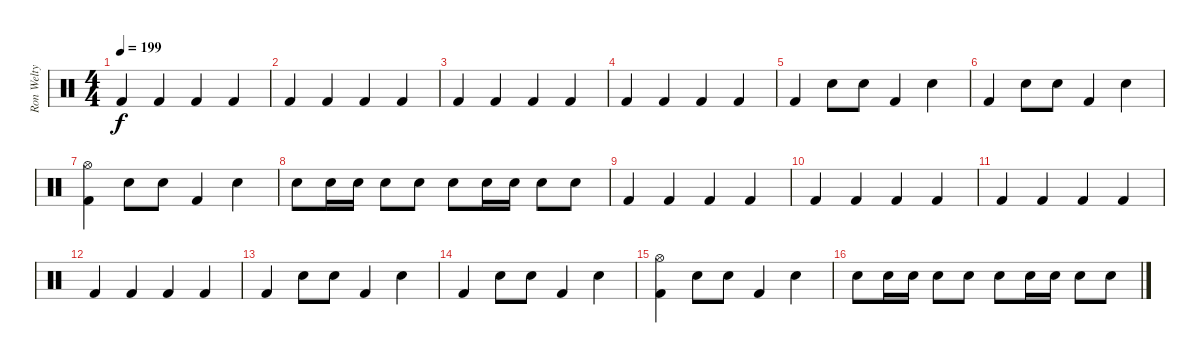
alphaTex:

\track ("Ron Welty" "Ron Welty") {instrument percussion}
\staff {score}
\articulation defaults
\ts (4 4)
\tempo 199
\clef neutral
\ks c "Kick (hit) 2".4{dy f} "Kick (hit) 2".4 "Kick (hit) 2".4 "Kick (hit) 2".4
|
"Kick (hit) 2".4 "Kick (hit) 2".4 "Kick (hit) 2".4 "Kick (hit) 2".4 |
"Kick (hit) 2".4 "Kick (hit) 2".4 "Kick (hit) 2".4 "Kick (hit) 2".4 |
"Kick (hit) 2".4 "Kick (hit) 2".4 "Kick (hit) 2".4 "Kick (hit) 2".4 |
"Kick (hit) 2".4 "Snare (hit) 2".8 "Snare (hit) 2".8 "Kick (hit) 2".4 "Snare (hit) 2".4 |
"Kick (hit) 2".4 "Snare (hit) 2".8 "Snare (hit) 2".8 "Kick (hit) 2".4 "Snare (hit) 2".4 |
("Hi-Hat (open)" "Kick (hit) 2").4 "Snare (hit) 2".8 "Snare (hit) 2".8 "Kick (hit) 2".4 "Snare (hit) 2".4 |
"Snare (hit) 2".8 "Snare (hit) 2".16 "Snare (hit) 2".16 "Snare (hit) 2".8 "Snare (hit) 2".8 "Snare (hit) 2".8 "Snare (hit) 2".16 "Snare (hit) 2".16 "Snare (hit) 2".8 "Snare (hit) 2".8 |
"Kick (hit) 2".4 "Kick (hit) 2".4 "Kick (hit) 2".4 "Kick (hit) 2".4 |
"Kick (hit) 2".4 "Kick (hit) 2".4 "Kick (hit) 2".4 "Kick (hit) 2".4 |
"Kick (hit) 2".4 "Kick (hit) 2".4 "Kick (hit) 2".4 "Kick (hit) 2".4 |
"Kick (hit) 2".4 "Kick (hit) 2".4 "Kick (hit) 2".4 "Kick (hit) 2".4 |
"Kick (hit) 2".4 "Snare (hit) 2".8 "Snare (hit) 2".8 "Kick (hit) 2".4 "Snare (hit) 2".4 |
"Kick (hit) 2".4 "Snare (hit) 2".8 "Snare (hit) 2".8 "Kick (hit) 2".4 "Snare (hit) 2".4 |
("Hi-Hat (open)" "Kick (hit) 2").4 "Snare (hit) 2".8 "Snare (hit) 2".8 "Kick (hit) 2".4 "Snare (hit) 2".4 |
"Snare (hit) 2".8 "Snare (hit) 2".16 "Snare (hit) 2".16 "Snare (hit) 2".8 "Snare (hit) 2".8 "Snare (hit) 2".8 "Snare (hit) 2".16 "Snare (hit) 2".16 "Snare (hit) 2".8 "Snare (hit) 2".8
